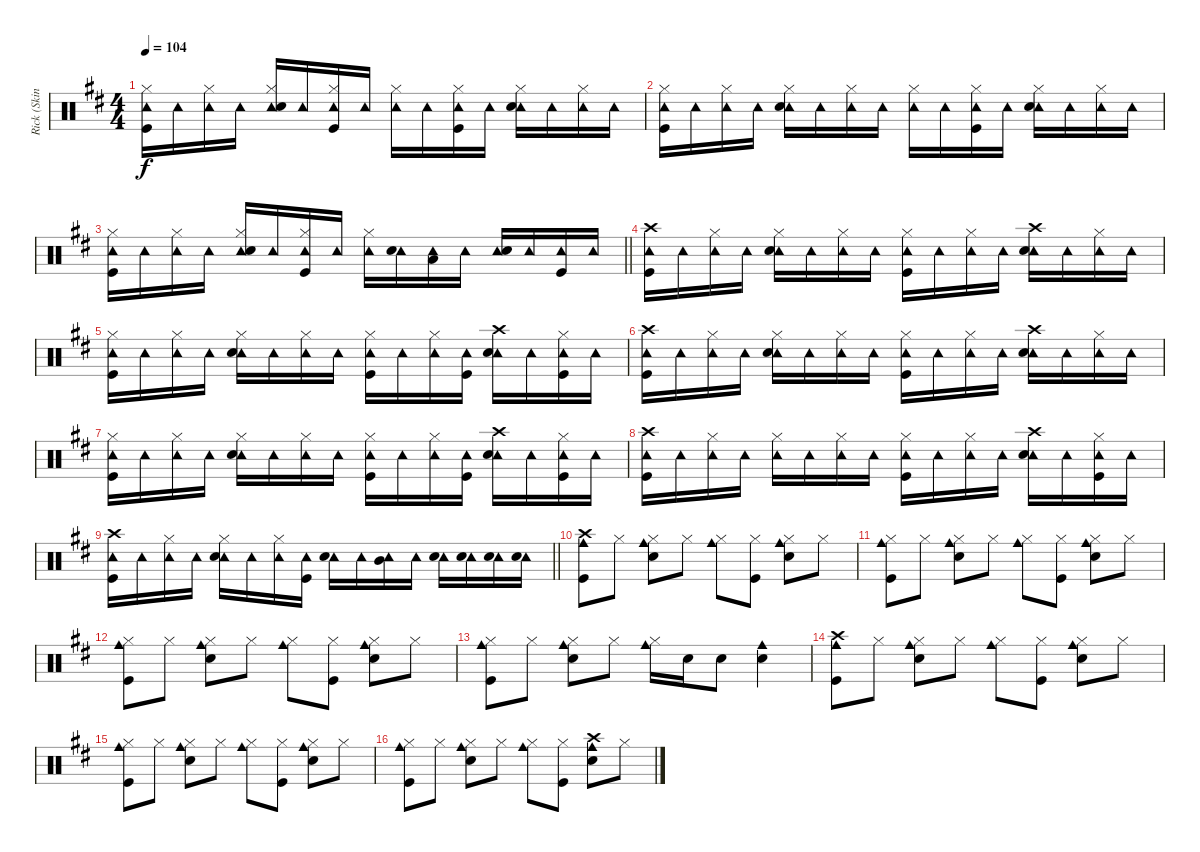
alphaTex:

\track ("Rick (Skins)" "Rick (Skin") {instrument percussion}
\staff {score}
\articulation defaults
\ts (4 4)
\tempo 104
\clef neutral
\ks d
("Tambourine (hit)" "Hi-Hat (closed)" "Kick (hit)").16{dy f} "Tambourine (hit)".16 ("Tambourine (hit)" "Hi-Hat (closed)").16 "Tambourine (hit)".16 ("Tambourine (hit)" "Hi-Hat (closed)" "Snare (hit) 2").16 "Tambourine (hit)".16 ("Tambourine (hit)" "Hi-Hat (closed)" "Kick (hit)").16 "Tambourine (hit)".16 ("Tambourine (hit)" "Hi-Hat (closed)").16 "Tambourine (hit)".16 ("Tambourine (hit)" "Hi-Hat (closed)" "Kick (hit)").16 "Tambourine (hit)".16 ("Tambourine (hit)" "Hi-Hat (closed)" "Snare (hit) 2").16 "Tambourine (hit)".16 ("Tambourine (hit)" "Hi-Hat (closed)").16 "Tambourine (hit)".16 |
("Tambourine (hit)" "Hi-Hat (closed)" "Kick (hit)").16 "Tambourine (hit)".16 ("Tambourine (hit)" "Hi-Hat (closed)").16 "Tambourine (hit)".16 ("Tambourine (hit)" "Hi-Hat (closed)" "Snare (hit) 2").16 "Tambourine (hit)".16 ("Tambourine (hit)" "Hi-Hat (closed)").16 "Tambourine (hit)".16 ("Tambourine (hit)" "Hi-Hat (closed)").16 "Tambourine (hit)".16 ("Tambourine (hit)" "Hi-Hat (closed)" "Kick (hit)").16 "Tambourine (hit)".16 ("Tambourine (hit)" "Hi-Hat (closed)" "Snare (hit) 2").16 "Tambourine (hit)".16 ("Tambourine (hit)" "Hi-Hat (closed)").16 "Tambourine (hit)".16 |
\barLineRight lightlight
("Tambourine (hit)" "Hi-Hat (closed)" "Kick (hit)").16 "Tambourine (hit)".16 ("Tambourine (hit)" "Hi-Hat (closed)").16 "Tambourine (hit)".16 ("Tambourine (hit)" "Hi-Hat (closed)" "Snare (hit) 2").16 "Tambourine (hit)".16 ("Tambourine (hit)" "Hi-Hat (closed)" "Kick (hit)").16 "Tambourine (hit)".16 ("Tambourine (hit)" "Hi-Hat (closed)").16 ("Tambourine (hit)" "Snare (hit) 2").16 ("Tambourine (hit)" "Low Tom (hit)").16 "Tambourine (hit)".16 ("Tambourine (hit)" "Snare (hit) 2").16 "Tambourine (hit)".16 ("Tambourine (hit)" "Kick (hit)").16 "Tambourine (hit)".16 |
("Tambourine (hit)" "Crash high (hit)" "Kick (hit)").16 "Tambourine (hit)".16 ("Tambourine (hit)" "Hi-Hat (closed)").16 "Tambourine (hit)".16 ("Tambourine (hit)" "Hi-Hat (closed)" "Snare (hit) 2").16 "Tambourine (hit)".16 ("Tambourine (hit)" "Hi-Hat (closed)").16 "Tambourine (hit)".16 ("Tambourine (hit)" "Hi-Hat (closed)" "Kick (hit)").16 "Tambourine (hit)".16 ("Tambourine (hit)" "Hi-Hat (closed)").16 "Tambourine (hit)".16 ("Tambourine (hit)" "Crash high (hit)" "Snare (hit) 2").16 "Tambourine (hit)".16 ("Tambourine (hit)" "Hi-Hat (closed)").16 "Tambourine (hit)".16 |
("Tambourine (hit)" "Hi-Hat (closed)" "Kick (hit)").16 "Tambourine (hit)".16 ("Tambourine (hit)" "Hi-Hat (closed)").16 "Tambourine (hit)".16 ("Tambourine (hit)" "Hi-Hat (closed)" "Snare (hit) 2").16 "Tambourine (hit)".16 ("Tambourine (hit)" "Hi-Hat (closed)").16 "Tambourine (hit)".16 ("Tambourine (hit)" "Hi-Hat (closed)" "Kick (hit)").16 "Tambourine (hit)".16 ("Tambourine (hit)" "Hi-Hat (closed)").16 ("Tambourine (hit)" "Kick (hit)").16 ("Tambourine (hit)" "Crash high (hit)" "Snare (hit) 2").16 "Tambourine (hit)".16 ("Tambourine (hit)" "Hi-Hat (closed)" "Kick (hit)").16 "Tambourine (hit)".16 |
("Tambourine (hit)" "Crash high (hit)" "Kick (hit)").16 "Tambourine (hit)".16 ("Tambourine (hit)" "Hi-Hat (closed)").16 "Tambourine (hit)".16 ("Tambourine (hit)" "Hi-Hat (closed)" "Snare (hit) 2").16 "Tambourine (hit)".16 ("Tambourine (hit)" "Hi-Hat (closed)").16 "Tambourine (hit)".16 ("Tambourine (hit)" "Hi-Hat (closed)" "Kick (hit)").16 "Tambourine (hit)".16 ("Tambourine (hit)" "Hi-Hat (closed)").16 "Tambourine (hit)".16 ("Tambourine (hit)" "Crash high (hit)" "Snare (hit) 2").16 "Tambourine (hit)".16 ("Tambourine (hit)" "Hi-Hat (closed)").16 "Tambourine (hit)".16 |
("Tambourine (hit)" "Hi-Hat (closed)" "Kick (hit)").16 "Tambourine (hit)".16 ("Tambourine (hit)" "Hi-Hat (closed)").16 "Tambourine (hit)".16 ("Tambourine (hit)" "Hi-Hat (closed)" "Snare (hit) 2").16 "Tambourine (hit)".16 ("Tambourine (hit)" "Hi-Hat (closed)").16 "Tambourine (hit)".16 ("Tambourine (hit)" "Hi-Hat (closed)" "Kick (hit)").16 "Tambourine (hit)".16 ("Tambourine (hit)" "Hi-Hat (closed)").16 ("Tambourine (hit)" "Kick (hit)").16 ("Tambourine (hit)" "Crash high (hit)" "Snare (hit) 2").16 "Tambourine (hit)".16 ("Tambourine (hit)" "Hi-Hat (closed)" "Kick (hit)").16 "Tambourine (hit)".16 |
("Tambourine (hit)" "Crash high (hit)" "Kick (hit)").16 "Tambourine (hit)".16 ("Tambourine (hit)" "Hi-Hat (closed)").16 "Tambourine (hit)".16 ("Tambourine (hit)" "Hi-Hat (closed)").16 "Tambourine (hit)".16 ("Tambourine (hit)" "Hi-Hat (closed)").16 "Tambourine (hit)".16 ("Tambourine (hit)" "Hi-Hat (closed)" "Kick (hit)").16 "Tambourine (hit)".16 ("Tambourine (hit)" "Hi-Hat (closed)").16 "Tambourine (hit)".16 ("Tambourine (hit)" "Crash high (hit)" "Snare (hit) 2").16 "Tambourine (hit)".16 ("Tambourine (hit)" "Hi-Hat (closed)" "Kick (hit)").16 "Tambourine (hit)".16 |
\barLineRight lightlight
("Tambourine (hit)" "Crash high (hit)" "Kick (hit)").16 "Tambourine (hit)".16 ("Tambourine (hit)" "Hi-Hat (closed)").16 "Tambourine (hit)".16 ("Tambourine (hit)" "Hi-Hat (closed)" "Snare (hit) 2").16 "Tambourine (hit)".16 ("Tambourine (hit)" "Hi-Hat (closed)").16 ("Tambourine (hit)" "Kick (hit)").16 ("Tambourine (hit)" "Snare (hit) 2").16 "Tambourine (hit)".16 ("Tambourine (hit)" "Mid Tom (hit)").16 "Tambourine (hit)".16 ("Tambourine (hit)" "Snare (hit) 2").16 ("Tambourine (hit)" "Snare (hit) 2").16 ("Tambourine (hit)" "Snare (hit) 2").16 ("Tambourine (hit)" "Snare (hit) 2").16 |
("Cowbell medium (hit)" "Crash high (hit)" "Kick (hit)").8 "Hi-Hat (closed)".8 ("Cowbell medium (hit)" "Hi-Hat (closed)" "Snare (hit) 2").8 "Hi-Hat (closed)".8 ("Cowbell medium (hit)" "Hi-Hat (closed)").8 ("Hi-Hat (closed)" "Kick (hit)").8 ("Cowbell medium (hit)" "Hi-Hat (closed)" "Snare (hit) 2").8 "Hi-Hat (closed)".8 |
("Cowbell medium (hit)" "Hi-Hat (closed)" "Kick (hit)").8 "Hi-Hat (closed)".8 ("Cowbell medium (hit)" "Hi-Hat (closed)" "Snare (hit) 2").8 "Hi-Hat (closed)".8 ("Cowbell medium (hit)" "Hi-Hat (closed)").8 ("Hi-Hat (closed)" "Kick (hit)").8 ("Cowbell medium (hit)" "Hi-Hat (closed)" "Snare (hit) 2").8 "Hi-Hat (closed)".8 |
("Cowbell medium (hit)" "Hi-Hat (closed)" "Kick (hit)").8 "Hi-Hat (closed)".8 ("Cowbell medium (hit)" "Hi-Hat (closed)" "Snare (hit) 2").8 "Hi-Hat (closed)".8 ("Cowbell medium (hit)" "Hi-Hat (closed)").8 ("Hi-Hat (closed)" "Kick (hit)").8 ("Cowbell medium (hit)" "Hi-Hat (closed)" "Snare (hit) 2").8 "Hi-Hat (closed)".8 |
("Cowbell medium (hit)" "Hi-Hat (closed)" "Kick (hit)").8 "Hi-Hat (closed)".8 ("Cowbell medium (hit)" "Hi-Hat (closed)" "Snare (hit) 2").8 "Hi-Hat (closed)".8 ("Cowbell medium (hit)" "Hi-Hat (closed)").16 "Snare (hit) 2".16 "Snare (hit) 2".8 ("Cowbell medium (hit)" "Snare (hit) 2").4 |
("Cowbell medium (hit)" "Crash high (hit)" "Kick (hit)").8 "Hi-Hat (closed)".8 ("Cowbell medium (hit)" "Hi-Hat (closed)" "Snare (hit) 2").8 "Hi-Hat (closed)".8 ("Cowbell medium (hit)" "Hi-Hat (closed)").8 ("Hi-Hat (closed)" "Kick (hit)").8 ("Cowbell medium (hit)" "Hi-Hat (closed)" "Snare (hit) 2").8 "Hi-Hat (closed)".8 |
("Cowbell medium (hit)" "Hi-Hat (closed)" "Kick (hit)").8 "Hi-Hat (closed)".8 ("Cowbell medium (hit)" "Hi-Hat (closed)" "Snare (hit) 2").8 "Hi-Hat (closed)".8 ("Cowbell medium (hit)" "Hi-Hat (closed)").8 ("Hi-Hat (closed)" "Kick (hit)").8 ("Cowbell medium (hit)" "Hi-Hat (closed)" "Snare (hit) 2").8 "Hi-Hat (closed)".8 |
("Cowbell medium (hit)" "Hi-Hat (closed)" "Kick (hit)").8 "Hi-Hat (closed)".8 ("Cowbell medium (hit)" "Hi-Hat (closed)" "Snare (hit) 2").8 "Hi-Hat (closed)".8 ("Cowbell medium (hit)" "Hi-Hat (closed)").8 ("Hi-Hat (closed)" "Kick (hit)").8 ("Cowbell medium (hit)" "Crash high (hit)" "Snare (hit) 2").8 "Hi-Hat (closed)".8
